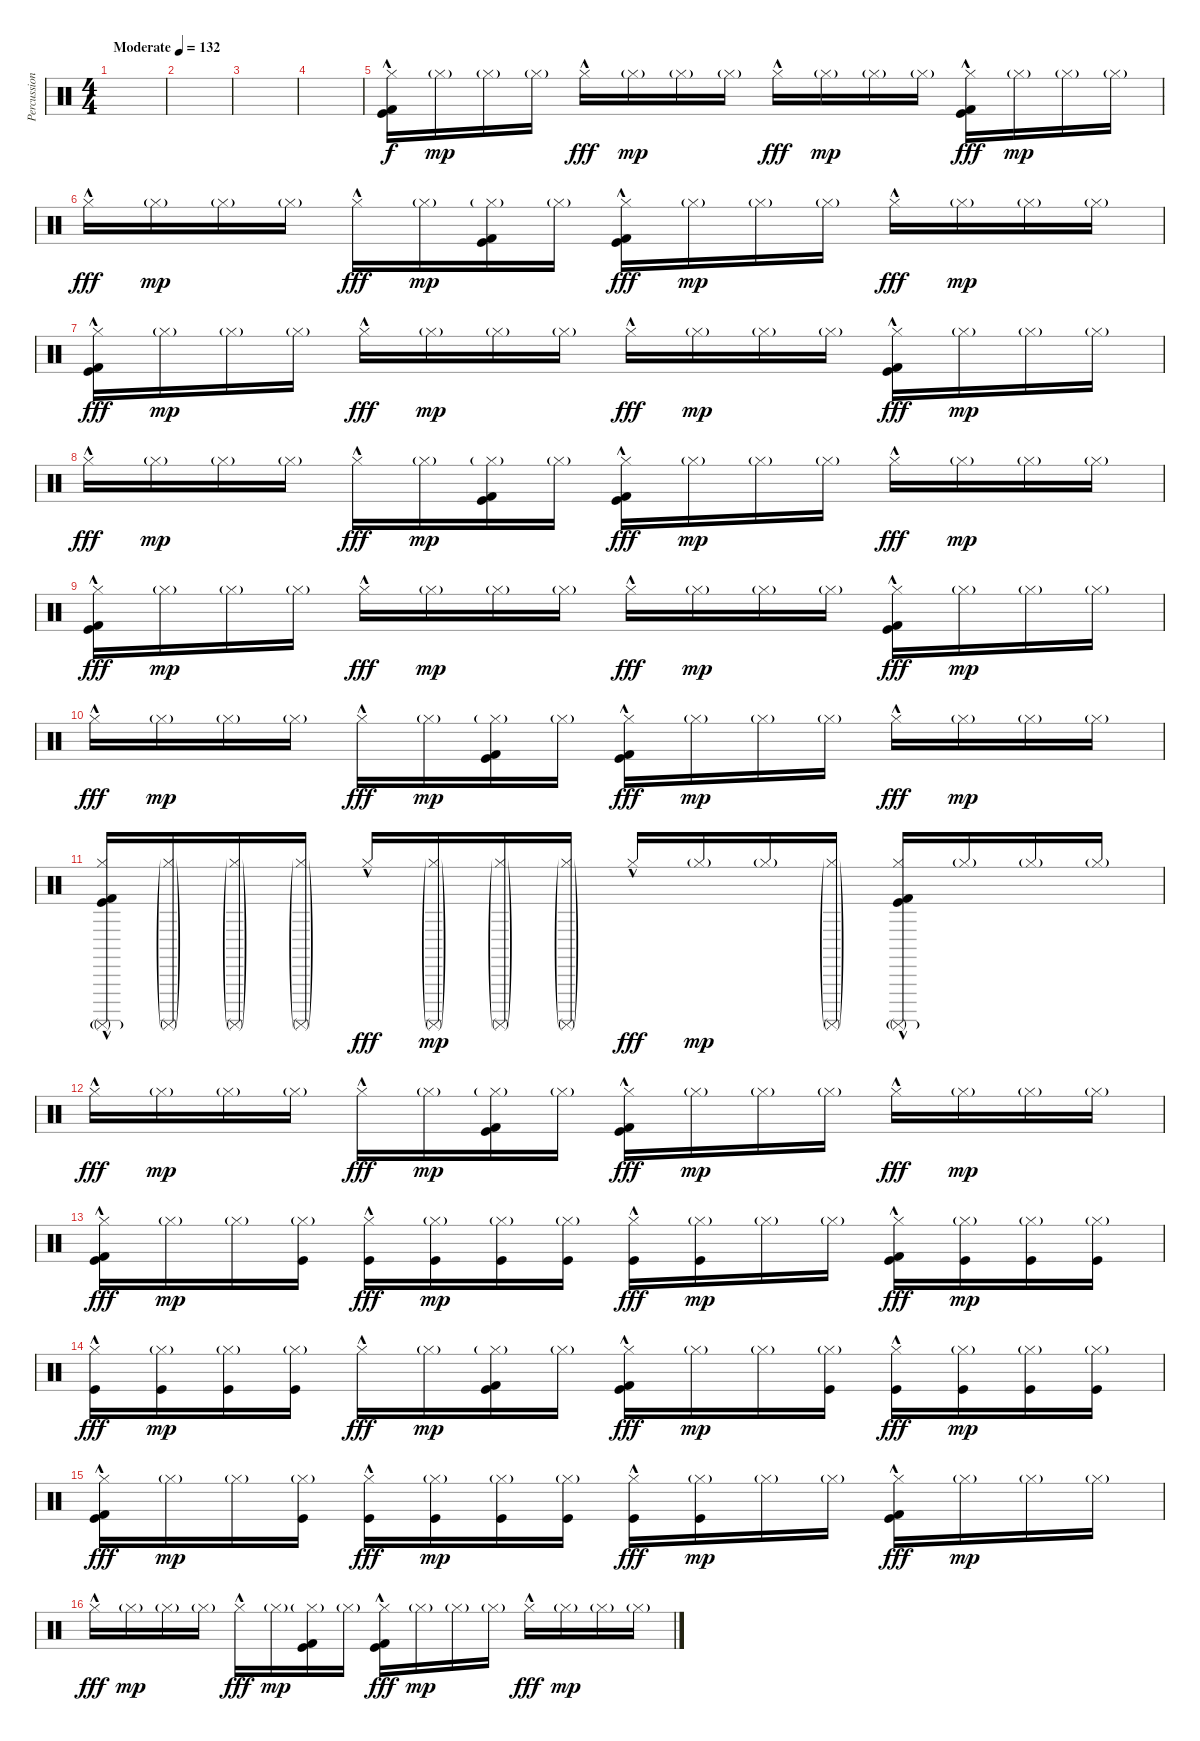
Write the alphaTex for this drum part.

\track ("Percussion" "Percussion") {instrument percussion}
\staff {score}
\articulation defaults
\ts (4 4)
\tempo (132 "Moderate")
\clef neutral
\ks c
|
|
|
|
("Hi-Hat (closed)"{hac} "Kick (hit) 2" "Kick (hit)").16 "Hi-Hat (closed)"{g}.16{dy mp} "Hi-Hat (closed)"{g}.16 "Hi-Hat (closed)"{g}.16 "Hi-Hat (closed)"{hac}.16{dy fff} "Hi-Hat (closed)"{g}.16{dy mp} "Hi-Hat (closed)"{g}.16 "Hi-Hat (closed)"{g}.16 "Hi-Hat (closed)"{hac}.16{dy fff} "Hi-Hat (closed)"{g}.16{dy mp} "Hi-Hat (closed)"{g}.16 "Hi-Hat (closed)"{g}.16 ("Hi-Hat (closed)"{hac} "Kick (hit)" "Kick (hit) 2").16{dy fff} "Hi-Hat (closed)"{g}.16{dy mp} "Hi-Hat (closed)"{g}.16 "Hi-Hat (closed)"{g}.16 |
"Hi-Hat (closed)"{hac}.16{dy fff} "Hi-Hat (closed)"{g}.16{dy mp} "Hi-Hat (closed)"{g}.16 "Hi-Hat (closed)"{g}.16 "Hi-Hat (closed)"{hac}.16{dy fff} "Hi-Hat (closed)"{g}.16{dy mp} ("Hi-Hat (closed)"{g} "Kick (hit)" "Kick (hit) 2").16 "Hi-Hat (closed)"{g}.16 ("Hi-Hat (closed)"{hac} "Kick (hit) 2" "Kick (hit)").16{dy fff} "Hi-Hat (closed)"{g}.16{dy mp} "Hi-Hat (closed)"{g}.16 "Hi-Hat (closed)"{g}.16 "Hi-Hat (closed)"{hac}.16{dy fff} "Hi-Hat (closed)"{g}.16{dy mp} "Hi-Hat (closed)"{g}.16 "Hi-Hat (closed)"{g}.16 |
("Hi-Hat (closed)"{hac} "Kick (hit) 2" "Kick (hit)").16{dy fff} "Hi-Hat (closed)"{g}.16{dy mp} "Hi-Hat (closed)"{g}.16 "Hi-Hat (closed)"{g}.16 "Hi-Hat (closed)"{hac}.16{dy fff} "Hi-Hat (closed)"{g}.16{dy mp} "Hi-Hat (closed)"{g}.16 "Hi-Hat (closed)"{g}.16 "Hi-Hat (closed)"{hac}.16{dy fff} "Hi-Hat (closed)"{g}.16{dy mp} "Hi-Hat (closed)"{g}.16 "Hi-Hat (closed)"{g}.16 ("Hi-Hat (closed)"{hac} "Kick (hit)" "Kick (hit) 2").16{dy fff} "Hi-Hat (closed)"{g}.16{dy mp} "Hi-Hat (closed)"{g}.16 "Hi-Hat (closed)"{g}.16 |
"Hi-Hat (closed)"{hac}.16{dy fff} "Hi-Hat (closed)"{g}.16{dy mp} "Hi-Hat (closed)"{g}.16 "Hi-Hat (closed)"{g}.16 "Hi-Hat (closed)"{hac}.16{dy fff} "Hi-Hat (closed)"{g}.16{dy mp} ("Hi-Hat (closed)"{g} "Kick (hit)" "Kick (hit) 2").16 "Hi-Hat (closed)"{g}.16 ("Hi-Hat (closed)"{hac} "Kick (hit) 2" "Kick (hit)").16{dy fff} "Hi-Hat (closed)"{g}.16{dy mp} "Hi-Hat (closed)"{g}.16 "Hi-Hat (closed)"{g}.16 "Hi-Hat (closed)"{hac}.16{dy fff} "Hi-Hat (closed)"{g}.16{dy mp} "Hi-Hat (closed)"{g}.16 "Hi-Hat (closed)"{g}.16 |
("Hi-Hat (closed)"{hac} "Kick (hit) 2" "Kick (hit)").16{dy fff} "Hi-Hat (closed)"{g}.16{dy mp} "Hi-Hat (closed)"{g}.16 "Hi-Hat (closed)"{g}.16 "Hi-Hat (closed)"{hac}.16{dy fff} "Hi-Hat (closed)"{g}.16{dy mp} "Hi-Hat (closed)"{g}.16 "Hi-Hat (closed)"{g}.16 "Hi-Hat (closed)"{hac}.16{dy fff} "Hi-Hat (closed)"{g}.16{dy mp} "Hi-Hat (closed)"{g}.16 "Hi-Hat (closed)"{g}.16 ("Hi-Hat (closed)"{hac} "Kick (hit)" "Kick (hit) 2").16{dy fff} "Hi-Hat (closed)"{g}.16{dy mp} "Hi-Hat (closed)"{g}.16 "Hi-Hat (closed)"{g}.16 |
"Hi-Hat (closed)"{hac}.16{dy fff} "Hi-Hat (closed)"{g}.16{dy mp} "Hi-Hat (closed)"{g}.16 "Hi-Hat (closed)"{g}.16 "Hi-Hat (closed)"{hac}.16{dy fff} "Hi-Hat (closed)"{g}.16{dy mp} ("Hi-Hat (closed)"{g} "Kick (hit)" "Kick (hit) 2").16 "Hi-Hat (closed)"{g}.16 ("Hi-Hat (closed)"{hac} "Kick (hit) 2" "Kick (hit)").16{dy fff} "Hi-Hat (closed)"{g}.16{dy mp} "Hi-Hat (closed)"{g}.16 "Hi-Hat (closed)"{g}.16 "Hi-Hat (closed)"{hac}.16{dy fff} "Hi-Hat (closed)"{g}.16{dy mp} "Hi-Hat (closed)"{g}.16 "Hi-Hat (closed)"{g}.16 |
("Hi-Hat (closed)"{hac} "Surdo (mute)"{g} "Kick (hit) 2" "Kick (hit)").16 ("Hi-Hat (closed)"{g} "Surdo (mute)"{g}).16 ("Hi-Hat (closed)"{g} "Surdo (mute)"{g}).16 ("Hi-Hat (closed)"{g} "Surdo (mute)"{g}).16 "Hi-Hat (closed)"{hac}.16{dy fff} ("Hi-Hat (closed)"{g} "Surdo (mute)"{g}).16{dy mp} ("Hi-Hat (closed)"{g} "Surdo (mute)"{g}).16 ("Hi-Hat (closed)"{g} "Surdo (mute)"{g}).16 "Hi-Hat (closed)"{hac}.16{dy fff} "Hi-Hat (closed)"{g}.16{dy mp} "Hi-Hat (closed)"{g}.16 ("Hi-Hat (closed)"{g} "Surdo (mute)"{g}).16 ("Hi-Hat (closed)"{hac} "Surdo (mute)"{g} "Kick (hit)" "Kick (hit) 2").16 "Hi-Hat (closed)"{g}.16 "Hi-Hat (closed)"{g}.16 "Hi-Hat (closed)"{g}.16 |
"Hi-Hat (closed)"{hac}.16{dy fff} "Hi-Hat (closed)"{g}.16{dy mp} "Hi-Hat (closed)"{g}.16 "Hi-Hat (closed)"{g}.16 "Hi-Hat (closed)"{hac}.16{dy fff} "Hi-Hat (closed)"{g}.16{dy mp} ("Hi-Hat (closed)"{g} "Kick (hit)" "Kick (hit) 2").16 "Hi-Hat (closed)"{g}.16 ("Hi-Hat (closed)"{hac} "Kick (hit) 2" "Kick (hit)").16{dy fff} "Hi-Hat (closed)"{g}.16{dy mp} "Hi-Hat (closed)"{g}.16 "Hi-Hat (closed)"{g}.16 "Hi-Hat (closed)"{hac}.16{dy fff} "Hi-Hat (closed)"{g}.16{dy mp} "Hi-Hat (closed)"{g}.16 "Hi-Hat (closed)"{g}.16 |
("Hi-Hat (closed)"{hac} "Kick (hit) 2" "Kick (hit)").16{dy fff} "Hi-Hat (closed)"{g}.16{dy mp} "Hi-Hat (closed)"{g}.16 ("Hi-Hat (closed)"{g} "Kick (hit)").16 ("Hi-Hat (closed)"{hac} "Kick (hit)").16{dy fff} ("Hi-Hat (closed)"{g} "Kick (hit)").16{dy mp} ("Hi-Hat (closed)"{g} "Kick (hit)").16 ("Hi-Hat (closed)"{g} "Kick (hit)").16 ("Hi-Hat (closed)"{hac} "Kick (hit)").16{dy fff} ("Hi-Hat (closed)"{g} "Kick (hit)").16{dy mp} "Hi-Hat (closed)"{g}.16 "Hi-Hat (closed)"{g}.16 ("Hi-Hat (closed)"{hac} "Kick (hit)" "Kick (hit) 2").16{dy fff} ("Hi-Hat (closed)"{g} "Kick (hit)").16{dy mp} ("Hi-Hat (closed)"{g} "Kick (hit)").16 ("Hi-Hat (closed)"{g} "Kick (hit)").16 |
("Hi-Hat (closed)"{hac} "Kick (hit)").16{dy fff} ("Hi-Hat (closed)"{g} "Kick (hit)").16{dy mp} ("Hi-Hat (closed)"{g} "Kick (hit)").16 ("Hi-Hat (closed)"{g} "Kick (hit)").16 "Hi-Hat (closed)"{hac}.16{dy fff} "Hi-Hat (closed)"{g}.16{dy mp} ("Hi-Hat (closed)"{g} "Kick (hit)" "Kick (hit) 2").16 "Hi-Hat (closed)"{g}.16 ("Hi-Hat (closed)"{hac} "Kick (hit) 2" "Kick (hit)").16{dy fff} "Hi-Hat (closed)"{g}.16{dy mp} "Hi-Hat (closed)"{g}.16 ("Hi-Hat (closed)"{g} "Kick (hit)").16 ("Hi-Hat (closed)"{hac} "Kick (hit)").16{dy fff} ("Hi-Hat (closed)"{g} "Kick (hit)").16{dy mp} ("Hi-Hat (closed)"{g} "Kick (hit)").16 ("Hi-Hat (closed)"{g} "Kick (hit)").16 |
("Hi-Hat (closed)"{hac} "Kick (hit) 2" "Kick (hit)").16{dy fff} "Hi-Hat (closed)"{g}.16{dy mp} "Hi-Hat (closed)"{g}.16 ("Hi-Hat (closed)"{g} "Kick (hit)").16 ("Hi-Hat (closed)"{hac} "Kick (hit)").16{dy fff} ("Hi-Hat (closed)"{g} "Kick (hit)").16{dy mp} ("Hi-Hat (closed)"{g} "Kick (hit)").16 ("Hi-Hat (closed)"{g} "Kick (hit)").16 ("Hi-Hat (closed)"{hac} "Kick (hit)").16{dy fff} ("Hi-Hat (closed)"{g} "Kick (hit)").16{dy mp} "Hi-Hat (closed)"{g}.16 "Hi-Hat (closed)"{g}.16 ("Hi-Hat (closed)"{hac} "Kick (hit)" "Kick (hit) 2").16{dy fff} "Hi-Hat (closed)"{g}.16{dy mp} "Hi-Hat (closed)"{g}.16 "Hi-Hat (closed)"{g}.16 |
"Hi-Hat (closed)"{hac}.16{dy fff} "Hi-Hat (closed)"{g}.16{dy mp} "Hi-Hat (closed)"{g}.16 "Hi-Hat (closed)"{g}.16 "Hi-Hat (closed)"{hac}.16{dy fff} "Hi-Hat (closed)"{g}.16{dy mp} ("Hi-Hat (closed)"{g} "Kick (hit)" "Kick (hit) 2").16 "Hi-Hat (closed)"{g}.16 ("Hi-Hat (closed)"{hac} "Kick (hit) 2" "Kick (hit)").16{dy fff} "Hi-Hat (closed)"{g}.16{dy mp} "Hi-Hat (closed)"{g}.16 "Hi-Hat (closed)"{g}.16 "Hi-Hat (closed)"{hac}.16{dy fff} "Hi-Hat (closed)"{g}.16{dy mp} "Hi-Hat (closed)"{g}.16 "Hi-Hat (closed)"{g}.16
